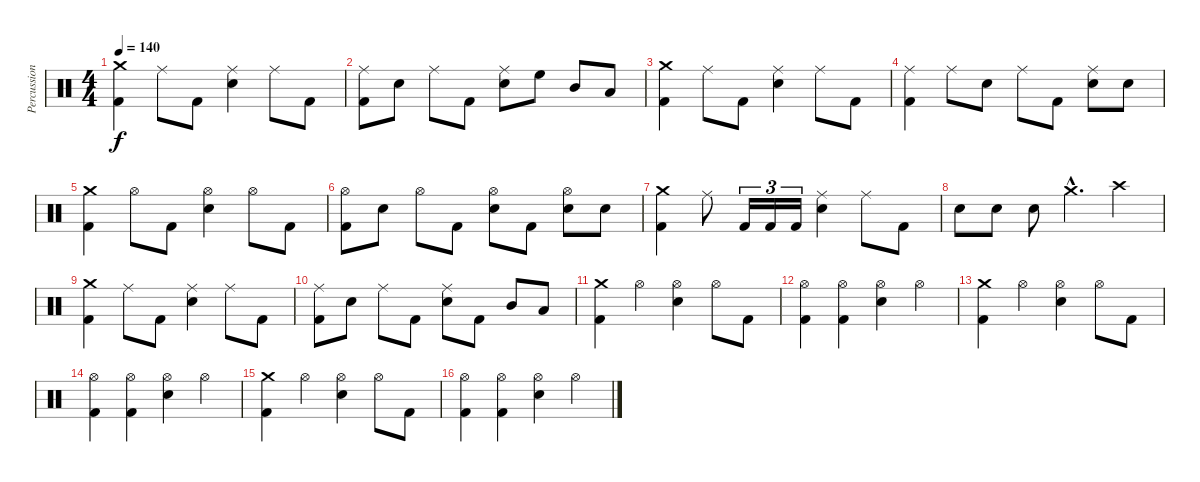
\track ("Percussion" "Percussion") {instrument percussion}
\staff {score}
\articulation defaults
\ts (4 4)
\tempo 140
\clef neutral
\ks c
("Crash medium (hit)" "Kick (hit) 2").4{dy f} "Ride (middle)".8 "Kick (hit) 2".8 ("Ride (middle)" "Snare (hit) 2").4 "Ride (middle)".8 "Kick (hit) 2".8 |
("Ride (middle)" "Kick (hit) 2").8 "Snare (hit) 2".8 "Ride (middle)".8 "Kick (hit) 2".8 ("Ride (middle)" "Snare (hit) 2").8 "High Floor Tom (hit)".8 "Mid Tom (hit)".8 "Low Tom (hit)".8 |
("Crash medium (hit)" "Kick (hit) 2").4 "Ride (middle)".8 "Kick (hit) 2".8 ("Ride (middle)" "Snare (hit) 2").4 "Ride (middle)".8 "Kick (hit) 2".8 |
("Ride (middle)" "Kick (hit) 2").4 "Ride (middle)".8 "Snare (hit) 2".8 "Ride (middle)".8 "Kick (hit) 2".8 ("Ride (middle)" "Snare (hit) 2").8 "Snare (hit) 2".8 |
("Crash medium (hit)" "Kick (hit) 2").4 "Hi-Hat (open)".8 "Kick (hit) 2".8 ("Hi-Hat (open)" "Snare (hit) 2").4 "Hi-Hat (open)".8 "Kick (hit) 2".8 |
("Hi-Hat (open)" "Kick (hit) 2").8 "Snare (hit) 2".8 "Hi-Hat (open)".8 "Kick (hit) 2".8 ("Hi-Hat (open)" "Snare (hit) 2").8 "Kick (hit) 2".8 ("Hi-Hat (open)" "Snare (hit) 2").8 "Snare (hit) 2".8 |
("Crash medium (hit)" "Kick (hit) 2").4 "Ride (middle)".8 "Kick (hit) 2".16{tu (3 2)} "Kick (hit) 2".16{tu (3 2)} "Kick (hit) 2".16{tu (3 2)} ("Ride (middle)" "Snare (hit) 2").4 "Ride (middle)".8 "Kick (hit) 2".8 |
"Snare (hit) 2".8 "Snare (hit) 2".8 "Snare (hit) 2".8 "Crash medium (hit)"{hac}.4{d} "Crash high (hit)".4 |
("Crash medium (hit)" "Kick (hit) 2").4 "Ride (middle)".8 "Kick (hit) 2".8 ("Ride (middle)" "Snare (hit) 2").4 "Ride (middle)".8 "Kick (hit) 2".8 |
("Ride (middle)" "Kick (hit) 2").8 "Snare (hit) 2".8 "Ride (middle)".8 "Kick (hit) 2".8 ("Ride (middle)" "Snare (hit) 2").8 "Kick (hit) 2".8 "Mid Tom (hit)".8 "Low Tom (hit)".8 |
("Crash medium (hit)" "Kick (hit) 2").4 "Hi-Hat (open)".4 ("Hi-Hat (open)" "Snare (hit) 2").4 "Hi-Hat (open)".8 "Kick (hit) 2".8 |
("Hi-Hat (open)" "Kick (hit) 2").4 ("Hi-Hat (open)" "Kick (hit) 2").4 ("Hi-Hat (open)" "Snare (hit) 2").4 "Hi-Hat (open)".4 |
("Crash medium (hit)" "Kick (hit) 2").4 "Hi-Hat (open)".4 ("Hi-Hat (open)" "Snare (hit) 2").4 "Hi-Hat (open)".8 "Kick (hit) 2".8 |
("Hi-Hat (open)" "Kick (hit) 2").4 ("Hi-Hat (open)" "Kick (hit) 2").4 ("Hi-Hat (open)" "Snare (hit) 2").4 "Hi-Hat (open)".4 |
("Crash medium (hit)" "Kick (hit) 2").4 "Hi-Hat (open)".4 ("Hi-Hat (open)" "Snare (hit) 2").4 "Hi-Hat (open)".8 "Kick (hit) 2".8 |
("Hi-Hat (open)" "Kick (hit) 2").4 ("Hi-Hat (open)" "Kick (hit) 2").4 ("Hi-Hat (open)" "Snare (hit) 2").4 "Hi-Hat (open)".4
